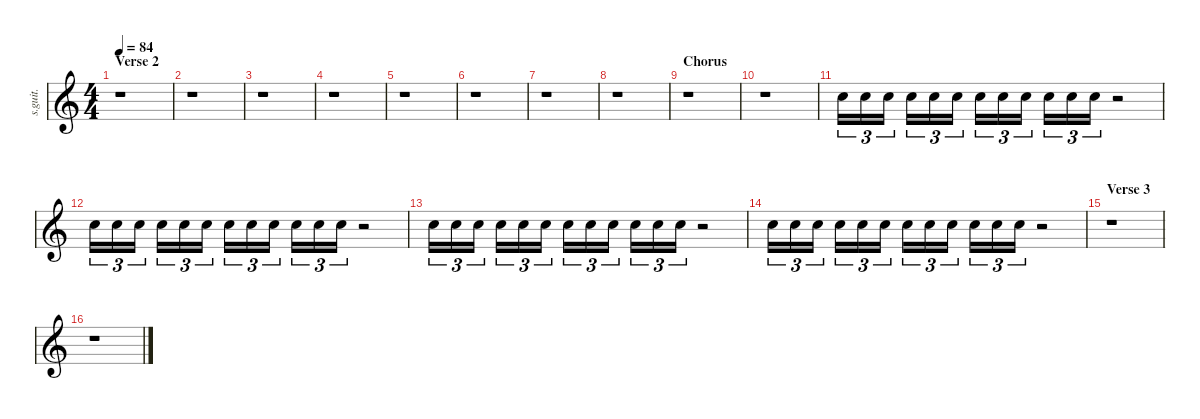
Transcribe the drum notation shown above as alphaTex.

\defaultSystemsLayout 4
\hideDynamics
\bracketExtendMode nobrackets
\track ("RIngo Starr - Hand Claps" "s.guit.") {instrument percussion}
\staff {score}
\articulation defaults
\ts (4 4)
\section ("" "Verse 2")
\tempo 84
\clef g2
\ks c
r.1{dy pp} |
r.1 |
r.1 |
r.1 |
r.1 |
r.1 |
r.1 |
r.1 |
\section ("" "Chorus")
r.1 |
r.1 |
"Hand Clap (hit)".16{tu (3 2) lyrics (0 "") lyrics (1 "") lyrics (2 "") lyrics (3 "") lyrics (4 "") dy mf} "Hand Clap (hit)".16{tu (3 2) lyrics (0 "") lyrics (1 "") lyrics (2 "") lyrics (3 "") lyrics (4 "")} "Hand Clap (hit)".16{tu (3 2) lyrics (0 "") lyrics (1 "") lyrics (2 "") lyrics (3 "") lyrics (4 "")} "Hand Clap (hit)".16{tu (3 2) lyrics (0 "") lyrics (1 "") lyrics (2 "") lyrics (3 "") lyrics (4 "") dy mp} "Hand Clap (hit)".16{tu (3 2) lyrics (0 "") lyrics (1 "") lyrics (2 "") lyrics (3 "") lyrics (4 "")} "Hand Clap (hit)".16{tu (3 2) lyrics (0 "") lyrics (1 "") lyrics (2 "") lyrics (3 "") lyrics (4 "")} "Hand Clap (hit)".16{tu (3 2) lyrics (0 "") lyrics (1 "") lyrics (2 "") lyrics (3 "") lyrics (4 "") dy p} "Hand Clap (hit)".16{tu (3 2) lyrics (0 "") lyrics (1 "") lyrics (2 "") lyrics (3 "") lyrics (4 "")} "Hand Clap (hit)".16{tu (3 2) lyrics (0 "") lyrics (1 "") lyrics (2 "") lyrics (3 "") lyrics (4 "")} "Hand Clap (hit)".16{tu (3 2) lyrics (0 "") lyrics (1 "") lyrics (2 "") lyrics (3 "") lyrics (4 "") dy pp} "Hand Clap (hit)".16{tu (3 2) lyrics (0 "") lyrics (1 "") lyrics (2 "") lyrics (3 "") lyrics (4 "")} "Hand Clap (hit)".16{tu (3 2) lyrics (0 "") lyrics (1 "") lyrics (2 "") lyrics (3 "") lyrics (4 "")} r.2 |
"Hand Clap (hit)".16{tu (3 2) lyrics (0 "") lyrics (1 "") lyrics (2 "") lyrics (3 "") lyrics (4 "") dy mf} "Hand Clap (hit)".16{tu (3 2) lyrics (0 "") lyrics (1 "") lyrics (2 "") lyrics (3 "") lyrics (4 "")} "Hand Clap (hit)".16{tu (3 2) lyrics (0 "") lyrics (1 "") lyrics (2 "") lyrics (3 "") lyrics (4 "")} "Hand Clap (hit)".16{tu (3 2) lyrics (0 "") lyrics (1 "") lyrics (2 "") lyrics (3 "") lyrics (4 "") dy mp} "Hand Clap (hit)".16{tu (3 2) lyrics (0 "") lyrics (1 "") lyrics (2 "") lyrics (3 "") lyrics (4 "")} "Hand Clap (hit)".16{tu (3 2) lyrics (0 "") lyrics (1 "") lyrics (2 "") lyrics (3 "") lyrics (4 "")} "Hand Clap (hit)".16{tu (3 2) lyrics (0 "") lyrics (1 "") lyrics (2 "") lyrics (3 "") lyrics (4 "") dy p} "Hand Clap (hit)".16{tu (3 2) lyrics (0 "") lyrics (1 "") lyrics (2 "") lyrics (3 "") lyrics (4 "")} "Hand Clap (hit)".16{tu (3 2) lyrics (0 "") lyrics (1 "") lyrics (2 "") lyrics (3 "") lyrics (4 "")} "Hand Clap (hit)".16{tu (3 2) lyrics (0 "") lyrics (1 "") lyrics (2 "") lyrics (3 "") lyrics (4 "") dy pp} "Hand Clap (hit)".16{tu (3 2) lyrics (0 "") lyrics (1 "") lyrics (2 "") lyrics (3 "") lyrics (4 "")} "Hand Clap (hit)".16{tu (3 2) lyrics (0 "") lyrics (1 "") lyrics (2 "") lyrics (3 "") lyrics (4 "")} r.2 |
"Hand Clap (hit)".16{tu (3 2) lyrics (0 "") lyrics (1 "") lyrics (2 "") lyrics (3 "") lyrics (4 "") dy mf} "Hand Clap (hit)".16{tu (3 2) lyrics (0 "") lyrics (1 "") lyrics (2 "") lyrics (3 "") lyrics (4 "")} "Hand Clap (hit)".16{tu (3 2) lyrics (0 "") lyrics (1 "") lyrics (2 "") lyrics (3 "") lyrics (4 "")} "Hand Clap (hit)".16{tu (3 2) lyrics (0 "") lyrics (1 "") lyrics (2 "") lyrics (3 "") lyrics (4 "") dy mp} "Hand Clap (hit)".16{tu (3 2) lyrics (0 "") lyrics (1 "") lyrics (2 "") lyrics (3 "") lyrics (4 "")} "Hand Clap (hit)".16{tu (3 2) lyrics (0 "") lyrics (1 "") lyrics (2 "") lyrics (3 "") lyrics (4 "")} "Hand Clap (hit)".16{tu (3 2) lyrics (0 "") lyrics (1 "") lyrics (2 "") lyrics (3 "") lyrics (4 "") dy p} "Hand Clap (hit)".16{tu (3 2) lyrics (0 "") lyrics (1 "") lyrics (2 "") lyrics (3 "") lyrics (4 "")} "Hand Clap (hit)".16{tu (3 2) lyrics (0 "") lyrics (1 "") lyrics (2 "") lyrics (3 "") lyrics (4 "")} "Hand Clap (hit)".16{tu (3 2) lyrics (0 "") lyrics (1 "") lyrics (2 "") lyrics (3 "") lyrics (4 "") dy pp} "Hand Clap (hit)".16{tu (3 2) lyrics (0 "") lyrics (1 "") lyrics (2 "") lyrics (3 "") lyrics (4 "")} "Hand Clap (hit)".16{tu (3 2) lyrics (0 "") lyrics (1 "") lyrics (2 "") lyrics (3 "") lyrics (4 "")} r.2 |
"Hand Clap (hit)".16{tu (3 2) lyrics (0 "") lyrics (1 "") lyrics (2 "") lyrics (3 "") lyrics (4 "") dy mf} "Hand Clap (hit)".16{tu (3 2) lyrics (0 "") lyrics (1 "") lyrics (2 "") lyrics (3 "") lyrics (4 "")} "Hand Clap (hit)".16{tu (3 2) lyrics (0 "") lyrics (1 "") lyrics (2 "") lyrics (3 "") lyrics (4 "")} "Hand Clap (hit)".16{tu (3 2) lyrics (0 "") lyrics (1 "") lyrics (2 "") lyrics (3 "") lyrics (4 "") dy mp} "Hand Clap (hit)".16{tu (3 2) lyrics (0 "") lyrics (1 "") lyrics (2 "") lyrics (3 "") lyrics (4 "")} "Hand Clap (hit)".16{tu (3 2) lyrics (0 "") lyrics (1 "") lyrics (2 "") lyrics (3 "") lyrics (4 "")} "Hand Clap (hit)".16{tu (3 2) lyrics (0 "") lyrics (1 "") lyrics (2 "") lyrics (3 "") lyrics (4 "") dy p} "Hand Clap (hit)".16{tu (3 2) lyrics (0 "") lyrics (1 "") lyrics (2 "") lyrics (3 "") lyrics (4 "")} "Hand Clap (hit)".16{tu (3 2) lyrics (0 "") lyrics (1 "") lyrics (2 "") lyrics (3 "") lyrics (4 "")} "Hand Clap (hit)".16{tu (3 2) lyrics (0 "") lyrics (1 "") lyrics (2 "") lyrics (3 "") lyrics (4 "") dy pp} "Hand Clap (hit)".16{tu (3 2) lyrics (0 "") lyrics (1 "") lyrics (2 "") lyrics (3 "") lyrics (4 "")} "Hand Clap (hit)".16{tu (3 2) lyrics (0 "") lyrics (1 "") lyrics (2 "") lyrics (3 "") lyrics (4 "")} r.2 |
\section ("" "Verse 3")
r.1 |
r.1
